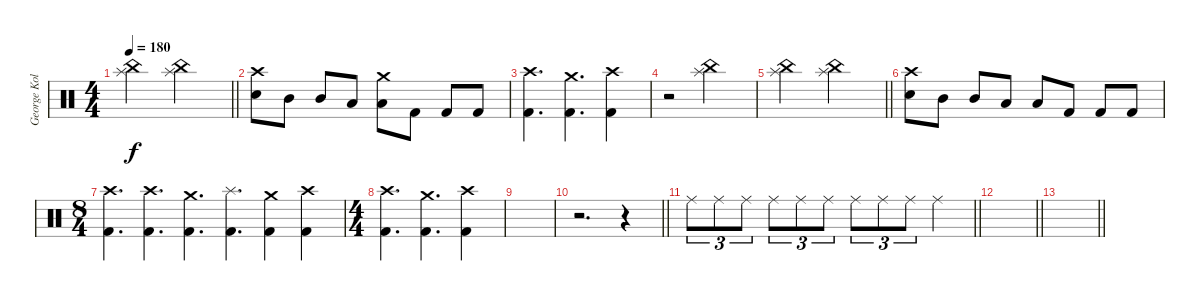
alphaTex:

\track ("George Kollias [Equill]" "George Kol") {instrument percussion}
\staff {score}
\articulation defaults
\ts (4 4)
\tempo 180
\clef neutral
\barLineRight lightlight
\ks c
("China (hit)" "Splash (hit)").2{dy f} ("China (hit)" "Splash (hit)").2 |
("Crash high (hit)" "Electric Snare (hit)").8 "Mid Tom (hit)".8 "Mid Tom (hit)".8 "Low Tom (hit)".8 ("Crash medium (hit)" "Low Tom (hit)").8 "Kick (hit) 2".8 "Kick (hit) 2".8 "Kick (hit) 2".8 |
("Crash high (hit)" "Kick (hit) 2").4{d} ("Crash medium (hit)" "Kick (hit) 2").4{d} ("Crash high (hit)" "Kick (hit) 2").4 |
r.2 ("China (hit)" "Splash (hit)").2 |
\barLineRight lightlight
("China (hit)" "Splash (hit)").2 ("China (hit)" "Splash (hit)").2 |
("Crash high (hit)" "Electric Snare (hit)").8 "Mid Tom (hit)".8 "Mid Tom (hit)".8 "Low Tom (hit)".8 "Low Tom (hit)".8 "Kick (hit) 2".8 "Kick (hit) 2".8 "Kick (hit) 2".8 |
\ts (8 4)
("Crash high (hit)" "Kick (hit) 2").4{d} ("Crash high (hit)" "Kick (hit) 2").4{d} ("Crash medium (hit)" "Kick (hit) 2").4{d} ("Splash (hit)" "Kick (hit) 2").4{d} ("Crash medium (hit)" "Kick (hit) 2").4 ("Crash high (hit)" "Kick (hit) 2").4 |
\ts (4 4)
("Crash high (hit)" "Kick (hit) 2").4{d} ("Crash medium (hit)" "Kick (hit) 2").4{d} ("Crash high (hit)" "Kick (hit) 2").4 |
|
\barLineRight lightlight
r.2{d} r.4{volume 0} |
\barLineRight lightlight "Ride (middle)".8{tu (3 2) volume 15} "Ride (middle)".8{tu (3 2)} "Ride (middle)".8{tu (3 2)} "Ride (middle)".8{tu (3 2)} "Ride (middle)".8{tu (3 2)} "Ride (middle)".8{tu (3 2)} "Ride (middle)".8{tu (3 2)} "Ride (middle)".8{tu (3 2)} "Ride (middle)".8{tu (3 2)} "Ride (middle)".4
|
\barLineRight lightlight
|
\barLineRight lightlight
